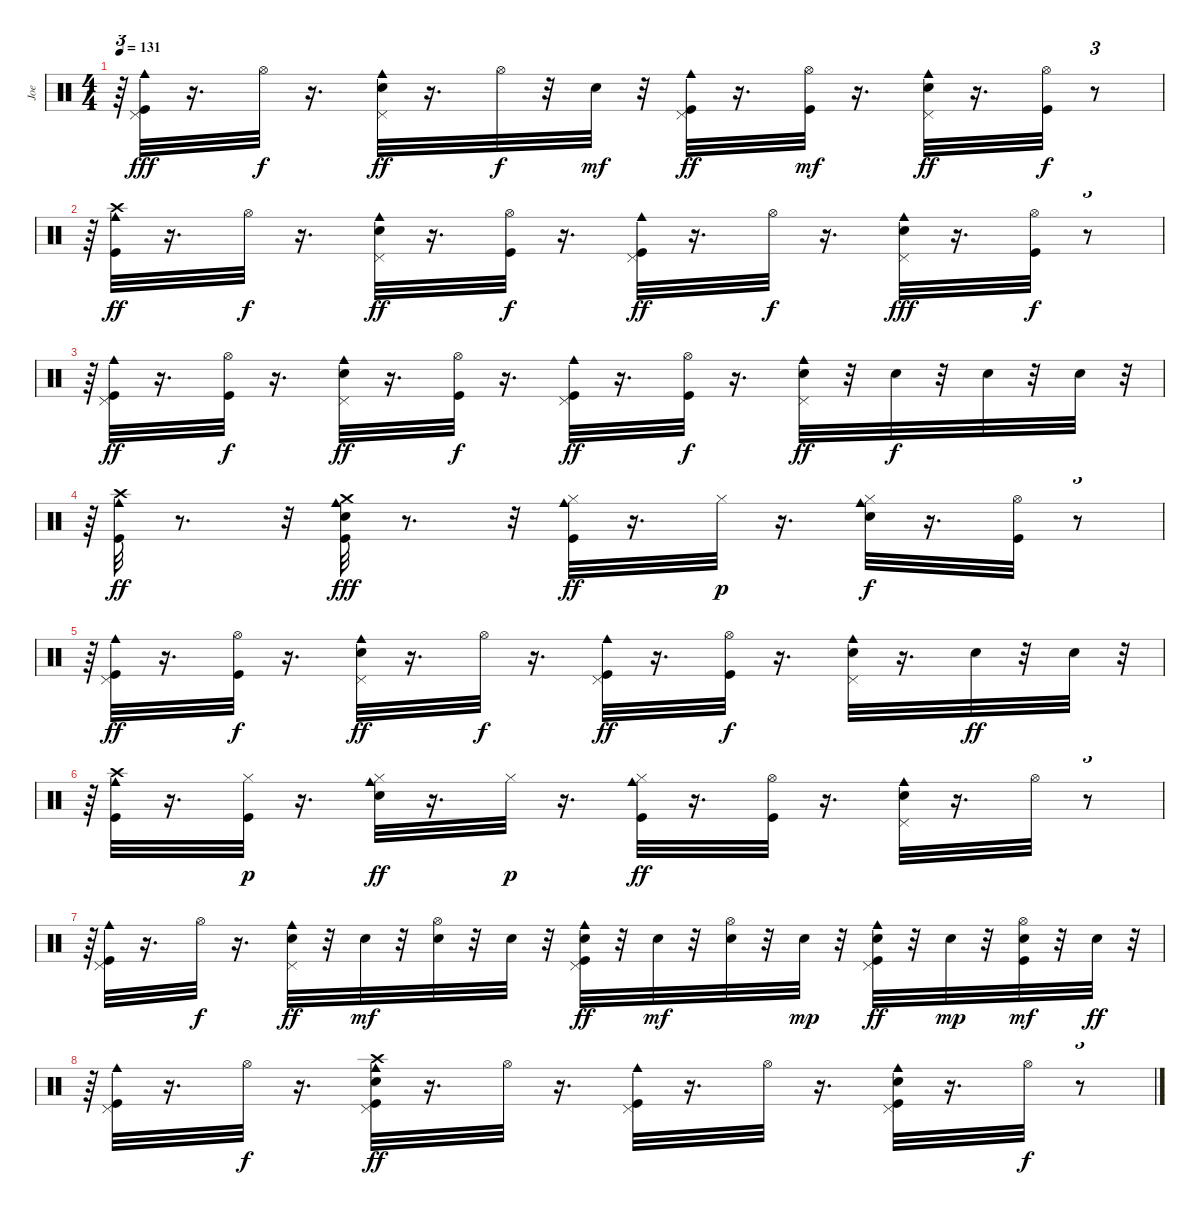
\track ("Joe" "Joe") {instrument percussion}
\staff {score}
\articulation defaults
\ts (4 4)
\tempo 131
\clef neutral
\ks c
r.64{tu (3 2) dy f} ("Cowbell medium (hit)" "Kick (hit)" "Pedal Hi-Hat (hit)").32{dy fff} r.16{d} "Hi-Hat (open)".32{dy f} r.16{d} ("Cowbell medium (hit)" "Pedal Hi-Hat (hit)" "Snare (hit) 2").32{dy ff} r.16{d} "Hi-Hat (open)".32{dy f} r.32 "Snare (hit) 2".32{dy mf} r.32 ("Pedal Hi-Hat (hit)" "Cowbell medium (hit)" "Kick (hit)").32{dy ff} r.16{d} ("Hi-Hat (open)" "Kick (hit)").32{dy mf} r.16{d} ("Cowbell medium (hit)" "Pedal Hi-Hat (hit)" "Snare (hit) 2").32{dy ff} r.16{d} ("Hi-Hat (open)" "Kick (hit)").32{dy f} r.8{tu (3 2)} |
r.64{tu (3 2)} ("Kick (hit)" "Cowbell medium (hit)" "Crash high (hit)").32{dy ff} r.16{d} "Hi-Hat (open)".32{dy f} r.16{d} ("Cowbell medium (hit)" "Pedal Hi-Hat (hit)" "Snare (hit) 2").32{dy ff} r.16{d} ("Hi-Hat (open)" "Kick (hit)").32{dy f} r.16{d} ("Pedal Hi-Hat (hit)" "Cowbell medium (hit)" "Kick (hit)").32{dy ff} r.16{d} "Hi-Hat (open)".32{dy f} r.16{d} ("Cowbell medium (hit)" "Snare (hit) 2" "Pedal Hi-Hat (hit)").32{dy fff} r.16{d} ("Hi-Hat (open)" "Kick (hit)").32{dy f} r.8{tu (3 2)} |
r.64{tu (3 2)} ("Kick (hit)" "Pedal Hi-Hat (hit)" "Cowbell medium (hit)").32{dy ff} r.16{d} ("Kick (hit)" "Hi-Hat (open)").32{dy f} r.16{d} ("Pedal Hi-Hat (hit)" "Snare (hit) 2" "Cowbell medium (hit)").32{dy ff} r.16{d} ("Hi-Hat (open)" "Kick (hit)").32{dy f} r.16{d} ("Cowbell medium (hit)" "Pedal Hi-Hat (hit)" "Kick (hit)").32{dy ff} r.16{d} ("Kick (hit)" "Hi-Hat (open)").32{dy f} r.16{d} ("Cowbell medium (hit)" "Pedal Hi-Hat (hit)" "Snare (hit) 2").32{dy ff} r.32 "Snare (hit) 2".32{dy f} r.32 "Snare (hit) 2".32 r.32 "Snare (hit) 2".32 r.32{tu (3 2)} |
r.64{tu (3 2)} ("Cowbell medium (hit)" "Kick (hit)" "Crash high (hit)").32{dy ff} r.8{d} r.32 ("Cowbell medium (hit)" "Kick (hit)" "Snare (hit) 2" "Crash medium (hit)").32{dy fff} r.8{d} r.32 ("Cowbell medium (hit)" "Hi-Hat (closed)" "Kick (hit)").32{dy ff} r.16{d} "Hi-Hat (closed)".32{dy p} r.16{d} ("Cowbell medium (hit)" "Hi-Hat (closed)" "Snare (hit) 2").32{dy f} r.16{d} ("Kick (hit)" "Hi-Hat (open)").32 r.8{tu (3 2)} |
r.64{tu (3 2)} ("Pedal Hi-Hat (hit)" "Kick (hit)" "Cowbell medium (hit)").32{dy ff} r.16{d} ("Hi-Hat (open)" "Kick (hit)").32{dy f} r.16{d} ("Pedal Hi-Hat (hit)" "Cowbell medium (hit)" "Snare (hit) 2").32{dy ff} r.16{d} "Hi-Hat (open)".32{dy f} r.16{d} ("Cowbell medium (hit)" "Kick (hit)" "Pedal Hi-Hat (hit)").32{dy ff} r.16{d} ("Hi-Hat (open)" "Kick (hit)").32{dy f} r.16{d} ("Pedal Hi-Hat (hit)" "Cowbell medium (hit)" "Snare (hit) 2").32 r.16{d} "Snare (hit) 2".32{dy ff} r.32 "Snare (hit) 2".32 r.32{tu (3 2)} |
r.64{tu (3 2)} ("Crash high (hit)" "Cowbell medium (hit)" "Kick (hit)").32 r.16{d} ("Hi-Hat (closed)" "Kick (hit)").32{dy p} r.16{d} ("Snare (hit) 2" "Cowbell medium (hit)" "Hi-Hat (closed)").32{dy ff} r.16{d} "Hi-Hat (closed)".32{dy p} r.16{d} ("Hi-Hat (closed)" "Cowbell medium (hit)" "Kick (hit)").32{dy ff} r.16{d} ("Hi-Hat (open)" "Kick (hit)").32 r.16{d} ("Snare (hit) 2" "Cowbell medium (hit)" "Pedal Hi-Hat (hit)").32 r.16{d} "Hi-Hat (open)".32 r.8{tu (3 2)} |
r.64{tu (3 2)} ("Cowbell medium (hit)" "Kick (hit)" "Pedal Hi-Hat (hit)").32 r.16{d} "Hi-Hat (open)".32{dy f} r.16{d} ("Pedal Hi-Hat (hit)" "Snare (hit) 2" "Cowbell medium (hit)").32{dy ff} r.32 "Snare (hit) 2".32{dy mf} r.32 ("Hi-Hat (open)" "Snare (hit) 2").32 r.32 "Snare (hit) 2".32 r.32 ("Kick (hit)" "Cowbell medium (hit)" "Pedal Hi-Hat (hit)" "Snare (hit) 2").32{dy ff} r.32 "Snare (hit) 2".32{dy mf} r.32 ("Hi-Hat (open)" "Snare (hit) 2").32 r.32 "Snare (hit) 2".32{dy mp} r.32 ("Pedal Hi-Hat (hit)" "Cowbell medium (hit)" "Kick (hit)" "Snare (hit) 2").32{dy ff} r.32 "Snare (hit) 2".32{dy mp} r.32 ("Kick (hit)" "Hi-Hat (open)" "Snare (hit) 2").32{dy mf} r.32 "Snare (hit) 2".32{dy ff} r.32{tu (3 2)} |
r.64{tu (3 2)} ("Kick (hit)" "Cowbell medium (hit)" "Pedal Hi-Hat (hit)").32 r.16{d} "Hi-Hat (open)".32{dy f} r.16{d} ("Kick (hit)" "Snare (hit) 2" "Crash high (hit)" "Cowbell medium (hit)" "Pedal Hi-Hat (hit)").32{dy ff} r.16{d} "Hi-Hat (open)".32 r.16{d} ("Pedal Hi-Hat (hit)" "Kick (hit)" "Cowbell medium (hit)").32 r.16{d} "Hi-Hat (open)".32 r.16{d} ("Pedal Hi-Hat (hit)" "Cowbell medium (hit)" "Snare (hit) 2" "Kick (hit)").32 r.16{d} "Hi-Hat (open)".32{dy f} r.8{tu (3 2)}
